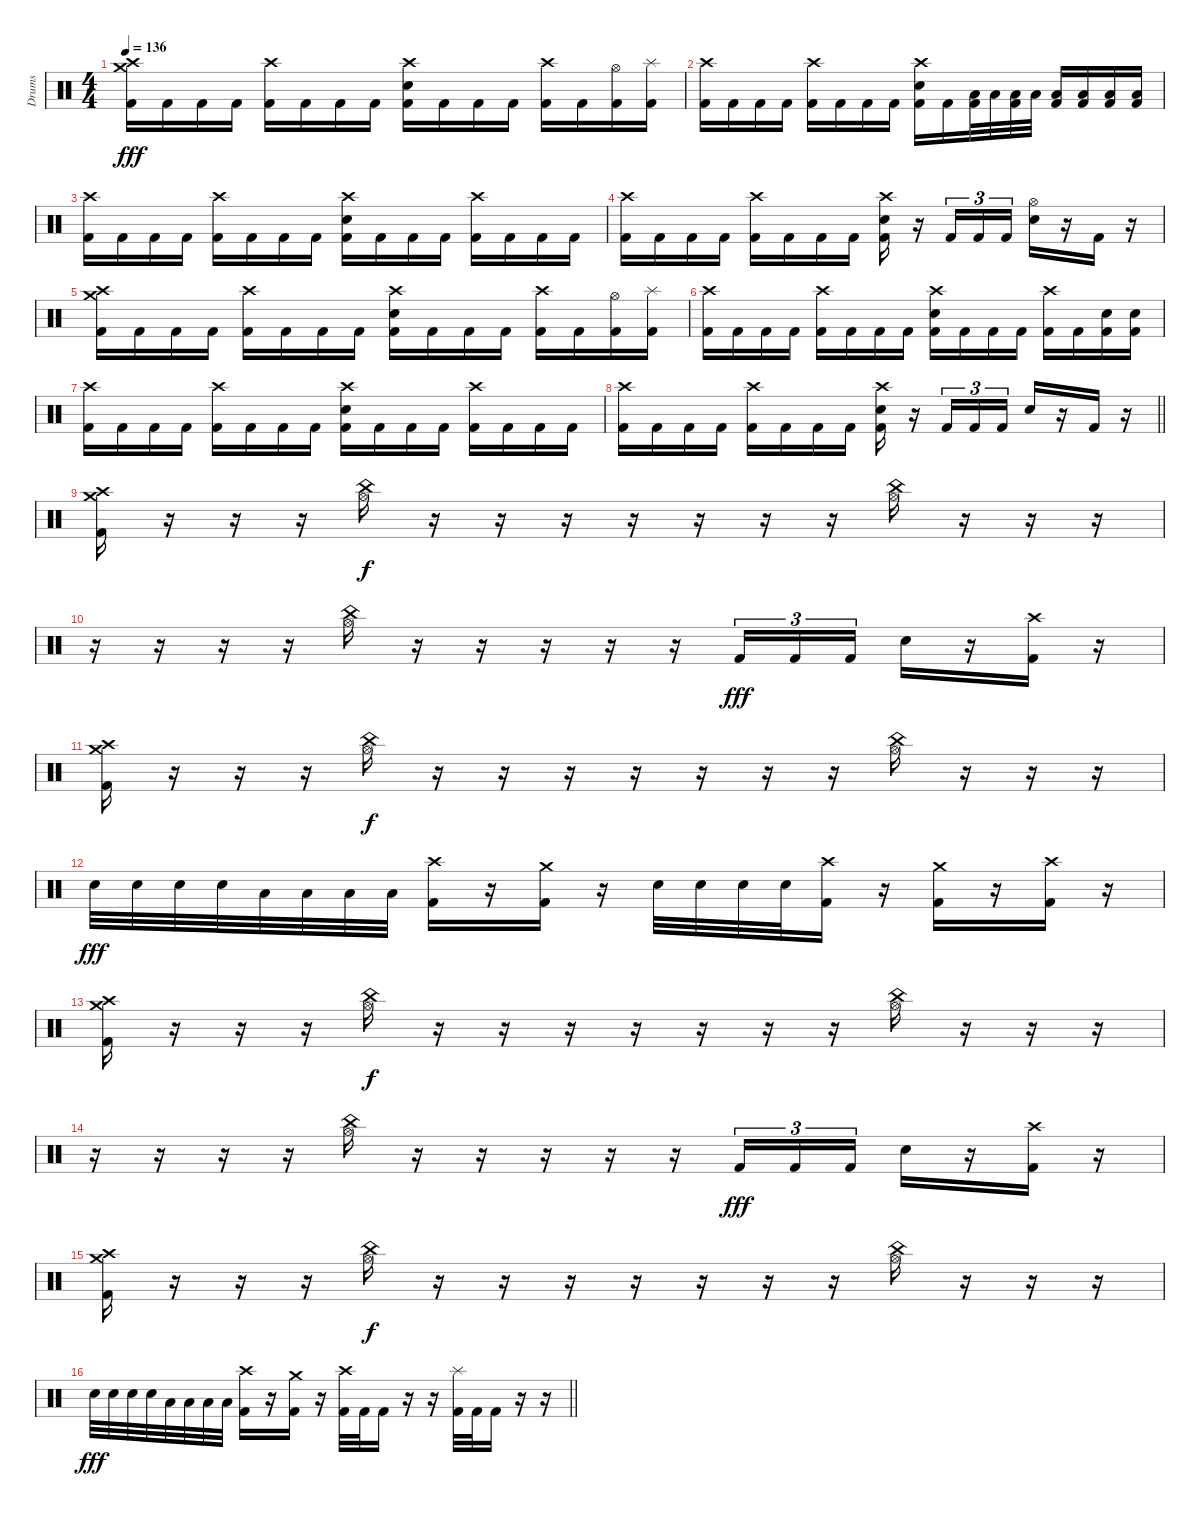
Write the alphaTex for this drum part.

\track ("Drums" "Drums") {instrument percussion}
\staff {score}
\articulation defaults
\ts (4 4)
\tempo 136
\clef neutral
\ks c
("Crash high (hit)" "Crash medium (hit)" "Kick (hit) 2").16{dy fff} "Kick (hit) 2".16 "Kick (hit) 2".16 "Kick (hit) 2".16 ("Crash high (hit)" "Kick (hit) 2").16 "Kick (hit) 2".16 "Kick (hit) 2".16 "Kick (hit) 2".16 ("Crash high (hit)" "Electric Snare (hit)" "Kick (hit) 2").16 "Kick (hit) 2".16 "Kick (hit) 2".16 "Kick (hit) 2".16 ("Crash high (hit)" "Kick (hit) 2").16 "Kick (hit) 2".16 ("Hi-Hat (open)" "Kick (hit) 2").16 ("Splash (hit)" "Kick (hit) 2").16 |
("Crash high (hit)" "Kick (hit) 2").16 "Kick (hit) 2".16 "Kick (hit) 2".16 "Kick (hit) 2".16 ("Crash high (hit)" "Kick (hit) 2").16 "Kick (hit) 2".16 "Kick (hit) 2".16 "Kick (hit) 2".16 ("Crash high (hit)" "Electric Snare (hit)" "Kick (hit) 2").16 "Kick (hit) 2".16 ("Low Tom (hit)" "Kick (hit) 2").32 "Low Tom (hit)".32 ("Low Tom (hit)" "Kick (hit) 2").32 "Low Tom (hit)".32 ("Low Tom (hit)" "Kick (hit) 2").16 ("Low Tom (hit)" "Kick (hit) 2").16 ("Low Floor Tom (hit)" "Kick (hit) 2").16 ("Low Floor Tom (hit)" "Kick (hit) 2").16 |
("Crash high (hit)" "Kick (hit) 2").16 "Kick (hit) 2".16 "Kick (hit) 2".16 "Kick (hit) 2".16 ("Crash high (hit)" "Kick (hit) 2").16 "Kick (hit) 2".16 "Kick (hit) 2".16 "Kick (hit) 2".16 ("Crash high (hit)" "Electric Snare (hit)" "Kick (hit) 2").16 "Kick (hit) 2".16 "Kick (hit) 2".16 "Kick (hit) 2".16 ("Crash high (hit)" "Kick (hit) 2").16 "Kick (hit) 2".16 "Kick (hit) 2".16 "Kick (hit) 2".16 |
("Crash high (hit)" "Kick (hit) 2").16 "Kick (hit) 2".16 "Kick (hit) 2".16 "Kick (hit) 2".16 ("Crash high (hit)" "Kick (hit) 2").16 "Kick (hit) 2".16 "Kick (hit) 2".16 "Kick (hit) 2".16 ("Crash high (hit)" "Electric Snare (hit)" "Kick (hit) 2").16 r.16 "Kick (hit) 2".16{tu (3 2)} "Kick (hit) 2".16{tu (3 2)} "Kick (hit) 2".16{tu (3 2)} ("Hi-Hat (open)" "Electric Snare (hit)").16 r.16 "Kick (hit) 2".16 r.16 |
("Crash high (hit)" "Crash medium (hit)" "Kick (hit) 2").16 "Kick (hit) 2".16 "Kick (hit) 2".16 "Kick (hit) 2".16 ("Crash high (hit)" "Kick (hit) 2").16 "Kick (hit) 2".16 "Kick (hit) 2".16 "Kick (hit) 2".16 ("Crash high (hit)" "Electric Snare (hit)" "Kick (hit) 2").16 "Kick (hit) 2".16 "Kick (hit) 2".16 "Kick (hit) 2".16 ("Crash high (hit)" "Kick (hit) 2").16 "Kick (hit) 2".16 ("Hi-Hat (open)" "Kick (hit) 2").16 ("Splash (hit)" "Kick (hit) 2").16 |
("Crash high (hit)" "Kick (hit) 2").16 "Kick (hit) 2".16 "Kick (hit) 2".16 "Kick (hit) 2".16 ("Crash high (hit)" "Kick (hit) 2").16 "Kick (hit) 2".16 "Kick (hit) 2".16 "Kick (hit) 2".16 ("Crash high (hit)" "Electric Snare (hit)" "Kick (hit) 2").16 "Kick (hit) 2".16 "Kick (hit) 2".16 "Kick (hit) 2".16 ("Crash high (hit)" "Kick (hit) 2").16 "Kick (hit) 2".16 ("Electric Snare (hit)" "Kick (hit) 2").16 ("Electric Snare (hit)" "Kick (hit) 2").16 |
("Crash high (hit)" "Kick (hit) 2").16 "Kick (hit) 2".16 "Kick (hit) 2".16 "Kick (hit) 2".16 ("Crash high (hit)" "Kick (hit) 2").16 "Kick (hit) 2".16 "Kick (hit) 2".16 "Kick (hit) 2".16 ("Crash high (hit)" "Electric Snare (hit)" "Kick (hit) 2").16 "Kick (hit) 2".16 "Kick (hit) 2".16 "Kick (hit) 2".16 ("Crash high (hit)" "Kick (hit) 2").16 "Kick (hit) 2".16 "Kick (hit) 2".16 "Kick (hit) 2".16 |
\barLineRight lightlight
("Crash high (hit)" "Kick (hit) 2").16 "Kick (hit) 2".16 "Kick (hit) 2".16 "Kick (hit) 2".16 ("Crash high (hit)" "Kick (hit) 2").16 "Kick (hit) 2".16 "Kick (hit) 2".16 "Kick (hit) 2".16 ("Crash high (hit)" "Electric Snare (hit)" "Kick (hit) 2").16 r.16 "Kick (hit) 2".16{tu (3 2)} "Kick (hit) 2".16{tu (3 2)} "Kick (hit) 2".16{tu (3 2)} "Electric Snare (hit)".16 r.16 "Kick (hit) 2".16 r.16 |
\section ("" "")
("Crash high (hit)" "Crash medium (hit)" "Kick (hit) 2").16 r.16 r.16 r.16 ("Hi-Hat (open)" "China (hit)").16{dy f} r.16 r.16 r.16 r.16 r.16 r.16 r.16 ("Hi-Hat (open)" "China (hit)").16 r.16 r.16 r.16 |
r.16 r.16 r.16 r.16 ("Hi-Hat (open)" "China (hit)").16 r.16 r.16 r.16 r.16 r.16 "Kick (hit) 2".16{tu (3 2) dy fff} "Kick (hit) 2".16{tu (3 2)} "Kick (hit) 2".16{tu (3 2)} "Electric Snare (hit)".16 r.16 ("Crash high (hit)" "Kick (hit) 2").16 r.16 |
("Crash high (hit)" "Crash medium (hit)" "Kick (hit) 2").16 r.16 r.16 r.16 ("Hi-Hat (open)" "China (hit)").16{dy f} r.16 r.16 r.16 r.16 r.16 r.16 r.16 ("Hi-Hat (open)" "China (hit)").16 r.16 r.16 r.16 |
"Electric Snare (hit)".32{dy fff} "Electric Snare (hit)".32 "Electric Snare (hit)".32 "Electric Snare (hit)".32 "Low Tom (hit)".32 "Low Tom (hit)".32 "Low Tom (hit)".32 "Low Tom (hit)".32 ("Crash high (hit)" "Kick (hit) 2").16 r.16 ("Crash medium (hit)" "Kick (hit) 2").16 r.16 "Electric Snare (hit)".32 "Electric Snare (hit)".32 "Electric Snare (hit)".32 "Electric Snare (hit)".32 ("Crash high (hit)" "Kick (hit) 2").16 r.16 ("Crash medium (hit)" "Kick (hit) 2").16 r.16 ("Crash high (hit)" "Kick (hit) 2").16 r.16 |
("Crash high (hit)" "Crash medium (hit)" "Kick (hit) 2").16 r.16 r.16 r.16 ("Hi-Hat (open)" "China (hit)").16{dy f} r.16 r.16 r.16 r.16 r.16 r.16 r.16 ("Hi-Hat (open)" "China (hit)").16 r.16 r.16 r.16 |
r.16 r.16 r.16 r.16 ("Hi-Hat (open)" "China (hit)").16 r.16 r.16 r.16 r.16 r.16 "Kick (hit) 2".16{tu (3 2) dy fff} "Kick (hit) 2".16{tu (3 2)} "Kick (hit) 2".16{tu (3 2)} "Electric Snare (hit)".16 r.16 ("Crash high (hit)" "Kick (hit) 2").16 r.16 |
("Crash high (hit)" "Crash medium (hit)" "Kick (hit) 2").16 r.16 r.16 r.16 ("Hi-Hat (open)" "China (hit)").16{dy f} r.16 r.16 r.16 r.16 r.16 r.16 r.16 ("Hi-Hat (open)" "China (hit)").16 r.16 r.16 r.16 |
\barLineRight lightlight "Electric Snare (hit)".32{dy fff} "Electric Snare (hit)".32 "Electric Snare (hit)".32 "Electric Snare (hit)".32 "Low Tom (hit)".32 "Low Tom (hit)".32 "Low Tom (hit)".32 "Low Tom (hit)".32
("Crash high (hit)" "Kick (hit) 2").16 r.16 ("Crash medium (hit)" "Kick (hit) 2").16 r.16 ("Crash high (hit)" "Kick (hit) 2").32 "Kick (hit) 2".32 "Kick (hit) 2".16 r.16 r.16 ("Splash (hit)" "Kick (hit) 2").32 "Kick (hit) 2".32 "Kick (hit) 2".16 r.16 r.16
